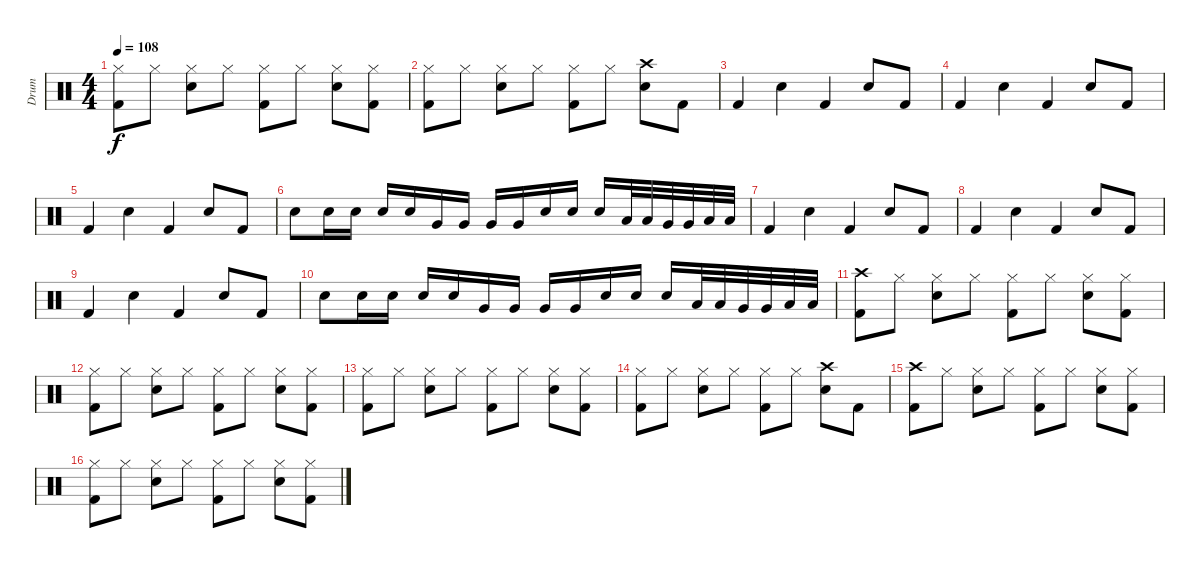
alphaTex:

\track ("Drum" "Drum") {instrument percussion}
\staff {score}
\articulation defaults
\ts (4 4)
\tempo 108
\clef neutral
\ks c
("Hi-Hat (closed)" "Kick (hit) 2").8{dy f} "Hi-Hat (closed)".8 ("Hi-Hat (closed)" "Electric Snare (hit)").8 "Hi-Hat (closed)".8 ("Hi-Hat (closed)" "Kick (hit) 2").8 "Hi-Hat (closed)".8 ("Hi-Hat (closed)" "Electric Snare (hit)").8 ("Hi-Hat (closed)" "Kick (hit) 2").8 |
("Hi-Hat (closed)" "Kick (hit) 2").8 "Hi-Hat (closed)".8 ("Hi-Hat (closed)" "Electric Snare (hit)").8 "Hi-Hat (closed)".8 ("Hi-Hat (closed)" "Kick (hit) 2").8 "Hi-Hat (closed)".8 ("Crash high (hit)" "Electric Snare (hit)").8 "Kick (hit) 2".8 |
"Kick (hit) 2".4 "Electric Snare (hit)".4 "Kick (hit) 2".4 "Electric Snare (hit)".8 "Kick (hit) 2".8 |
"Kick (hit) 2".4 "Electric Snare (hit)".4 "Kick (hit) 2".4 "Electric Snare (hit)".8 "Kick (hit) 2".8 |
"Kick (hit) 2".4 "Electric Snare (hit)".4 "Kick (hit) 2".4 "Electric Snare (hit)".8 "Kick (hit) 2".8 |
"Electric Snare (hit)".8 "Electric Snare (hit)".16 "Electric Snare (hit)".16 "Electric Snare (hit)".16 "Electric Snare (hit)".16 "Very Low Tom (hit)".16 "Very Low Tom (hit)".16 "Very Low Tom (hit)".16 "Very Low Tom (hit)".16 "Electric Snare (hit)".16 "Electric Snare (hit)".16 "Electric Snare (hit)".16 "Low Tom (hit)".32 "Low Tom (hit)".32 "Very Low Tom (hit)".32 "Very Low Tom (hit)".32 "Low Floor Tom (hit)".32 "Low Floor Tom (hit)".32 |
"Kick (hit) 2".4 "Electric Snare (hit)".4 "Kick (hit) 2".4 "Electric Snare (hit)".8 "Kick (hit) 2".8 |
"Kick (hit) 2".4 "Electric Snare (hit)".4 "Kick (hit) 2".4 "Electric Snare (hit)".8 "Kick (hit) 2".8 |
"Kick (hit) 2".4 "Electric Snare (hit)".4 "Kick (hit) 2".4 "Electric Snare (hit)".8 "Kick (hit) 2".8 |
"Electric Snare (hit)".8 "Electric Snare (hit)".16 "Electric Snare (hit)".16 "Electric Snare (hit)".16 "Electric Snare (hit)".16 "Very Low Tom (hit)".16 "Very Low Tom (hit)".16 "Very Low Tom (hit)".16 "Very Low Tom (hit)".16 "Electric Snare (hit)".16 "Electric Snare (hit)".16 "Electric Snare (hit)".16 "Low Tom (hit)".32 "Low Tom (hit)".32 "Very Low Tom (hit)".32 "Very Low Tom (hit)".32 "Low Floor Tom (hit)".32 "Low Floor Tom (hit)".32 |
("Crash high (hit)" "Kick (hit) 2").8 "Hi-Hat (closed)".8 ("Hi-Hat (closed)" "Electric Snare (hit)").8 "Hi-Hat (closed)".8 ("Hi-Hat (closed)" "Kick (hit) 2").8 "Hi-Hat (closed)".8 ("Hi-Hat (closed)" "Electric Snare (hit)").8 ("Hi-Hat (closed)" "Kick (hit) 2").8 |
("Hi-Hat (closed)" "Kick (hit) 2").8 "Hi-Hat (closed)".8 ("Hi-Hat (closed)" "Electric Snare (hit)").8 "Hi-Hat (closed)".8 ("Hi-Hat (closed)" "Kick (hit) 2").8 "Hi-Hat (closed)".8 ("Hi-Hat (closed)" "Electric Snare (hit)").8 ("Hi-Hat (closed)" "Kick (hit) 2").8 |
("Hi-Hat (closed)" "Kick (hit) 2").8 "Hi-Hat (closed)".8 ("Hi-Hat (closed)" "Electric Snare (hit)").8 "Hi-Hat (closed)".8 ("Hi-Hat (closed)" "Kick (hit) 2").8 "Hi-Hat (closed)".8 ("Hi-Hat (closed)" "Electric Snare (hit)").8 ("Hi-Hat (closed)" "Kick (hit) 2").8 |
("Hi-Hat (closed)" "Kick (hit) 2").8 "Hi-Hat (closed)".8 ("Hi-Hat (closed)" "Electric Snare (hit)").8 "Hi-Hat (closed)".8 ("Hi-Hat (closed)" "Kick (hit) 2").8 "Hi-Hat (closed)".8 ("Crash high (hit)" "Electric Snare (hit)").8 "Kick (hit) 2".8 |
("Crash high (hit)" "Kick (hit) 2").8 "Hi-Hat (closed)".8 ("Hi-Hat (closed)" "Electric Snare (hit)").8 "Hi-Hat (closed)".8 ("Hi-Hat (closed)" "Kick (hit) 2").8 "Hi-Hat (closed)".8 ("Hi-Hat (closed)" "Electric Snare (hit)").8 ("Hi-Hat (closed)" "Kick (hit) 2").8 |
("Hi-Hat (closed)" "Kick (hit) 2").8 "Hi-Hat (closed)".8 ("Hi-Hat (closed)" "Electric Snare (hit)").8 "Hi-Hat (closed)".8 ("Hi-Hat (closed)" "Kick (hit) 2").8 "Hi-Hat (closed)".8 ("Hi-Hat (closed)" "Electric Snare (hit)").8 ("Hi-Hat (closed)" "Kick (hit) 2").8
